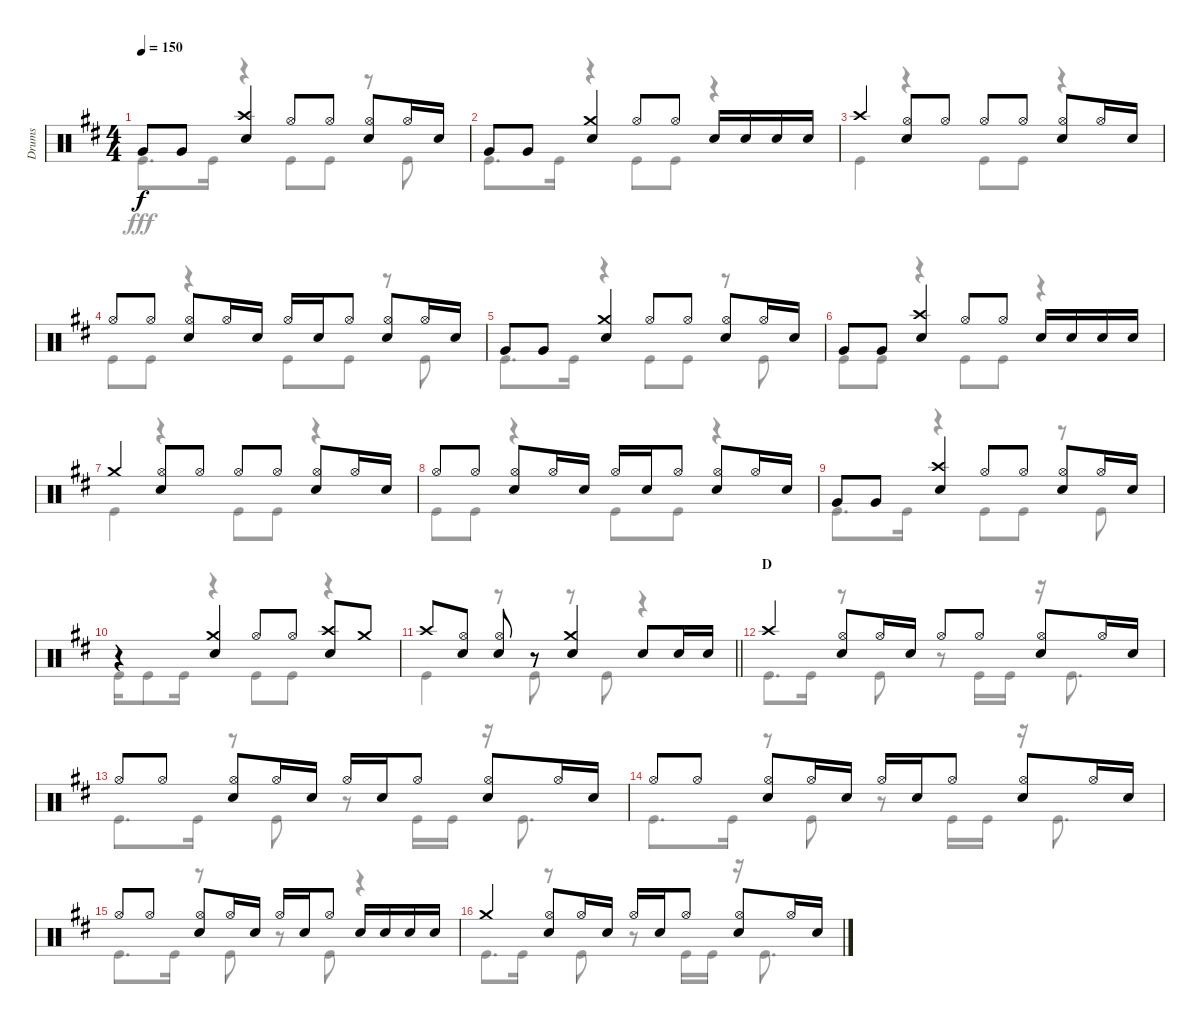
\track ("Drums" "Drums") {instrument percussion}
\staff {score}
\articulation defaults
\voice
\ts (4 4)
\tempo 150
\clef neutral
\ks d "Very Low Tom (hit)".8{dy f} "Very Low Tom (hit)".8
("Crash high (hit)" "Snare (hit) 2").4 "Hi-Hat (open)".8 "Hi-Hat (open)".8 ("Hi-Hat (open)" "Snare (hit) 2").8 "Hi-Hat (open)".16 "Snare (hit) 2".16 |
"Very Low Tom (hit)".8 "Very Low Tom (hit)".8 ("Crash medium (hit)" "Snare (hit) 2").4 "Hi-Hat (open)".8 "Hi-Hat (open)".8 "Snare (hit) 2".16 "Snare (hit) 2".16 "Snare (hit) 2".16 "Snare (hit) 2".16 |
"Crash high (hit)".4 ("Hi-Hat (open)" "Snare (hit) 2").8 "Hi-Hat (open)".8 "Hi-Hat (open)".8 "Hi-Hat (open)".8 ("Hi-Hat (open)" "Snare (hit) 2").8 "Hi-Hat (open)".16 "Snare (hit) 2".16 |
"Hi-Hat (open)".8 "Hi-Hat (open)".8 ("Hi-Hat (open)" "Snare (hit) 2").8 "Hi-Hat (open)".16 "Snare (hit) 2".16 "Hi-Hat (open)".16 "Snare (hit) 2".16 "Hi-Hat (open)".8 ("Hi-Hat (open)" "Snare (hit) 2").8 "Hi-Hat (open)".16 "Snare (hit) 2".16 |
"Very Low Tom (hit)".8 "Very Low Tom (hit)".8 ("Crash medium (hit)" "Snare (hit) 2").4 "Hi-Hat (open)".8 "Hi-Hat (open)".8 ("Hi-Hat (open)" "Snare (hit) 2").8 "Hi-Hat (open)".16 "Snare (hit) 2".16 |
"Very Low Tom (hit)".8 "Very Low Tom (hit)".8 ("Crash high (hit)" "Snare (hit) 2").4 "Hi-Hat (open)".8 "Hi-Hat (open)".8 "Snare (hit) 2".16 "Snare (hit) 2".16 "Snare (hit) 2".16 "Snare (hit) 2".16 |
"Crash medium (hit)".4 ("Hi-Hat (open)" "Snare (hit) 2").8 "Hi-Hat (open)".8 "Hi-Hat (open)".8 "Hi-Hat (open)".8 ("Hi-Hat (open)" "Snare (hit) 2").8 "Hi-Hat (open)".16 "Snare (hit) 2".16 |
"Hi-Hat (open)".8 "Hi-Hat (open)".8 ("Hi-Hat (open)" "Snare (hit) 2").8 "Hi-Hat (open)".16 "Snare (hit) 2".16 "Hi-Hat (open)".16 "Snare (hit) 2".16 "Hi-Hat (open)".8 ("Hi-Hat (open)" "Snare (hit) 2").8 "Hi-Hat (open)".16 "Snare (hit) 2".16 |
"Very Low Tom (hit)".8 "Very Low Tom (hit)".8 ("Crash high (hit)" "Snare (hit) 2").4 "Hi-Hat (open)".8 "Hi-Hat (open)".8 ("Hi-Hat (open)" "Snare (hit) 2").8 "Hi-Hat (open)".16 "Snare (hit) 2".16 |
r.4 ("Crash medium (hit)" "Snare (hit) 2").4 "Hi-Hat (open)".8 "Hi-Hat (open)".8 ("Crash high (hit)" "Snare (hit) 2").8 "Crash medium (hit)".8 |
\barLineRight lightlight "Crash high (hit)".8
("Hi-Hat (open)" "Snare (hit) 2").8 ("Hi-Hat (open)" "Snare (hit) 2").8 r.8 ("Crash medium (hit)" "Snare (hit) 2").4 "Snare (hit) 2".8 "Snare (hit) 2".16 "Snare (hit) 2".16 |
\section ("" "D")
"Crash high (hit)".4 ("Hi-Hat (open)" "Snare (hit) 2").8 "Hi-Hat (open)".16 "Snare (hit) 2".16 "Hi-Hat (open)".8 "Hi-Hat (open)".8 ("Hi-Hat (open)" "Snare (hit) 2").8 "Hi-Hat (open)".16 "Snare (hit) 2".16 |
"Hi-Hat (open)".8 "Hi-Hat (open)".8 ("Hi-Hat (open)" "Snare (hit) 2").8 "Hi-Hat (open)".16 "Snare (hit) 2".16 "Hi-Hat (open)".16 "Snare (hit) 2".16 "Hi-Hat (open)".8 ("Hi-Hat (open)" "Snare (hit) 2").8 "Hi-Hat (open)".16 "Snare (hit) 2".16 |
"Hi-Hat (open)".8 "Hi-Hat (open)".8 ("Hi-Hat (open)" "Snare (hit) 2").8 "Hi-Hat (open)".16 "Snare (hit) 2".16 "Hi-Hat (open)".16 "Snare (hit) 2".16 "Hi-Hat (open)".8 ("Hi-Hat (open)" "Snare (hit) 2").8 "Hi-Hat (open)".16 "Snare (hit) 2".16 |
"Hi-Hat (open)".8 "Hi-Hat (open)".8 ("Hi-Hat (open)" "Snare (hit) 2").8 "Hi-Hat (open)".16 "Snare (hit) 2".16 "Hi-Hat (open)".16 "Snare (hit) 2".16 "Hi-Hat (open)".8 "Snare (hit) 2".16 "Snare (hit) 2".16 "Snare (hit) 2".16 "Snare (hit) 2".16 |
"Crash medium (hit)".4 ("Hi-Hat (open)" "Snare (hit) 2").8 "Hi-Hat (open)".16 "Snare (hit) 2".16 "Hi-Hat (open)".16 "Snare (hit) 2".16 "Hi-Hat (open)".8 ("Hi-Hat (open)" "Snare (hit) 2").8 "Hi-Hat (open)".16 "Snare (hit) 2".16
\voice
\clef neutral
\ottava regular
\simile none
\ks d "Kick (hit)".8{d dy fff} "Kick (hit)".16
r.4 "Kick (hit)".8 "Kick (hit)".8 r.8 "Kick (hit)".8 |
"Kick (hit)".8{d} "Kick (hit)".16 r.4 "Kick (hit)".8 "Kick (hit)".8 r.4 |
"Kick (hit)".4 r.4 "Kick (hit)".8 "Kick (hit)".8 r.4 |
"Kick (hit)".8 "Kick (hit)".8 r.4 "Kick (hit)".8 "Kick (hit)".8 r.8 "Kick (hit)".8 |
"Kick (hit)".8{d} "Kick (hit)".16 r.4 "Kick (hit)".8 "Kick (hit)".8 r.8 "Kick (hit)".8 |
"Kick (hit)".8 "Kick (hit)".8 r.4 "Kick (hit)".8 "Kick (hit)".8 r.4 |
"Kick (hit)".4 r.4 "Kick (hit)".8 "Kick (hit)".8 r.4 |
"Kick (hit)".8 "Kick (hit)".8 r.4 "Kick (hit)".8 "Kick (hit)".8 r.4 |
"Kick (hit)".8{d} "Kick (hit)".16 r.4 "Kick (hit)".8 "Kick (hit)".8 r.8 "Kick (hit)".8 |
"Kick (hit)".16 "Kick (hit)".8 "Kick (hit)".16 r.4 "Kick (hit)".8 "Kick (hit)".8 r.4 |
\barLineRight lightlight "Kick (hit)".4
r.8 "Kick (hit)".8 r.8 "Kick (hit)".8 r.4 |
"Kick (hit)".8{d} "Kick (hit)".16 r.8 "Kick (hit)".8 r.8 "Kick (hit)".16 "Kick (hit)".16 r.16 "Kick (hit)".8{d} |
"Kick (hit)".8{d} "Kick (hit)".16 r.8 "Kick (hit)".8 r.8 "Kick (hit)".16 "Kick (hit)".16 r.16 "Kick (hit)".8{d} |
"Kick (hit)".8{d} "Kick (hit)".16 r.8 "Kick (hit)".8 r.8 "Kick (hit)".16 "Kick (hit)".16 r.16 "Kick (hit)".8{d} |
"Kick (hit)".8{d} "Kick (hit)".16 r.8 "Kick (hit)".8 r.8 "Kick (hit)".8 r.4 |
"Kick (hit)".8{d} "Kick (hit)".16 r.8 "Kick (hit)".8 r.8 "Kick (hit)".16 "Kick (hit)".16 r.16 "Kick (hit)".8{d}
